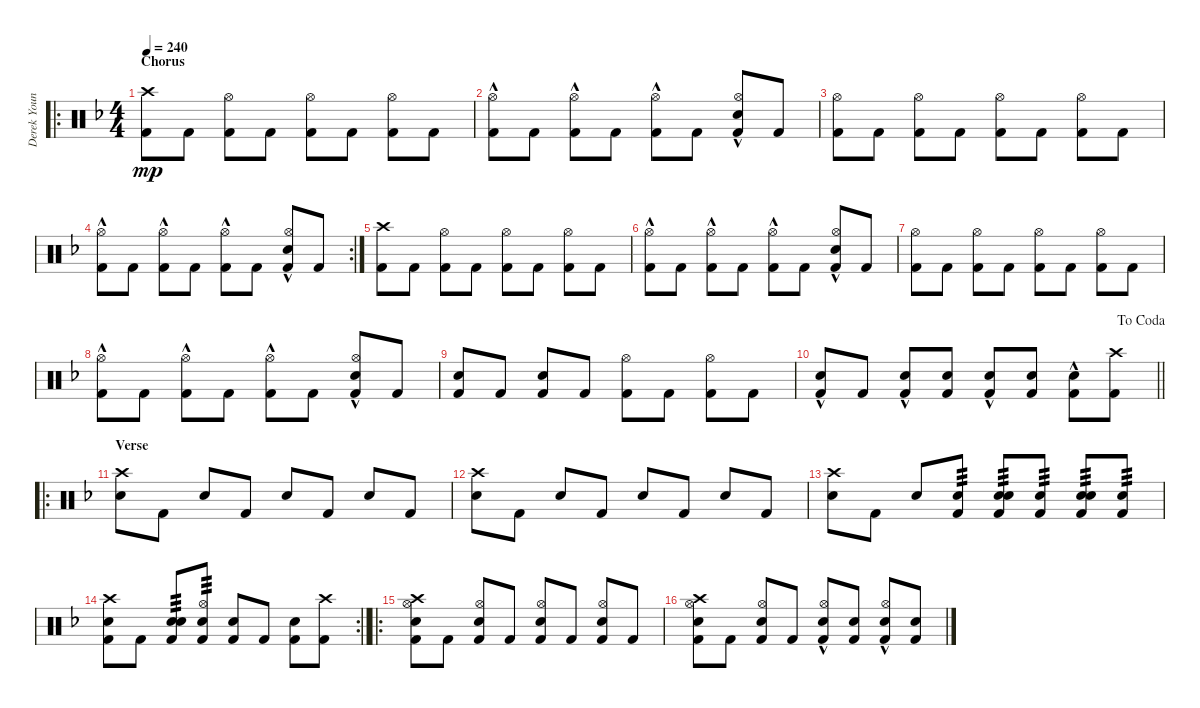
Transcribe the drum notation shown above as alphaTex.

\track ("Derek Youngsma" "Derek Youn") {instrument percussion}
\staff {score}
\articulation defaults
\ro
\ts (4 4)
\section ("" "Chorus")
\tempo 240
\clef neutral
\ks f
("Crash high (hit)" "Kick (hit) 2").8{dy mp} "Kick (hit) 2".8 ("Hi-Hat (open)" "Kick (hit) 2").8 "Kick (hit) 2".8 ("Hi-Hat (open)" "Kick (hit) 2").8 "Kick (hit) 2".8 ("Hi-Hat (open)" "Kick (hit) 2").8 "Kick (hit) 2".8 |
("Hi-Hat (open)" "Kick (hit) 2"{hac}).8 "Kick (hit) 2".8 ("Hi-Hat (open)" "Kick (hit) 2"{hac}).8 "Kick (hit) 2".8 ("Hi-Hat (open)" "Kick (hit) 2"{hac}).8 "Kick (hit) 2".8 ("Hi-Hat (open)" "Electric Snare (hit)" "Kick (hit) 2"{hac}).8 "Kick (hit) 2".8 |
("Hi-Hat (open)" "Kick (hit) 2").8 "Kick (hit) 2".8 ("Hi-Hat (open)" "Kick (hit) 2").8 "Kick (hit) 2".8 ("Hi-Hat (open)" "Kick (hit) 2").8 "Kick (hit) 2".8 ("Hi-Hat (open)" "Kick (hit) 2").8 "Kick (hit) 2".8 |
\rc 2
("Hi-Hat (open)" "Kick (hit) 2"{hac}).8 "Kick (hit) 2".8 ("Hi-Hat (open)" "Kick (hit) 2"{hac}).8 "Kick (hit) 2".8 ("Hi-Hat (open)" "Kick (hit) 2"{hac}).8 "Kick (hit) 2".8 ("Hi-Hat (open)" "Electric Snare (hit)" "Kick (hit) 2"{hac}).8 "Kick (hit) 2".8 |
("Crash high (hit)" "Kick (hit) 2").8 "Kick (hit) 2".8 ("Hi-Hat (open)" "Kick (hit) 2").8 "Kick (hit) 2".8 ("Hi-Hat (open)" "Kick (hit) 2").8 "Kick (hit) 2".8 ("Hi-Hat (open)" "Kick (hit) 2").8 "Kick (hit) 2".8 |
("Hi-Hat (open)" "Kick (hit) 2"{hac}).8 "Kick (hit) 2".8 ("Hi-Hat (open)" "Kick (hit) 2"{hac}).8 "Kick (hit) 2".8 ("Hi-Hat (open)" "Kick (hit) 2"{hac}).8 "Kick (hit) 2".8 ("Hi-Hat (open)" "Electric Snare (hit)" "Kick (hit) 2"{hac}).8 "Kick (hit) 2".8 |
("Hi-Hat (open)" "Kick (hit) 2").8 "Kick (hit) 2".8 ("Hi-Hat (open)" "Kick (hit) 2").8 "Kick (hit) 2".8 ("Hi-Hat (open)" "Kick (hit) 2").8 "Kick (hit) 2".8 ("Hi-Hat (open)" "Kick (hit) 2").8 "Kick (hit) 2".8 |
("Hi-Hat (open)" "Kick (hit) 2"{hac}).8 "Kick (hit) 2".8 ("Hi-Hat (open)" "Kick (hit) 2"{hac}).8 "Kick (hit) 2".8 ("Hi-Hat (open)" "Kick (hit) 2"{hac}).8 "Kick (hit) 2".8 ("Hi-Hat (open)" "Electric Snare (hit)" "Kick (hit) 2"{hac}).8 "Kick (hit) 2".8 |
("Electric Snare (hit)" "Kick (hit) 2").8 "Kick (hit) 2".8 ("Electric Snare (hit)" "Kick (hit) 2").8 "Kick (hit) 2".8 ("Hi-Hat (open)" "Kick (hit) 2").8 "Kick (hit) 2".8 ("Hi-Hat (open)" "Kick (hit) 2").8 "Kick (hit) 2".8 |
\jump dacoda
\barLineRight lightlight
("Electric Snare (hit)"{hac} "Kick (hit) 2").8 "Kick (hit) 2".8 ("Electric Snare (hit)"{hac} "Kick (hit) 2").8 ("Electric Snare (hit)" "Kick (hit) 2").8 ("Electric Snare (hit)"{hac} "Kick (hit) 2").8 ("Electric Snare (hit)" "Kick (hit) 2").8 ("Electric Snare (hit)"{hac} "Kick (hit) 2").8 ("Crash high (hit)" "Kick (hit) 2").8 |
\ro
\section ("" "Verse")
("Crash high (hit)" "Electric Snare (hit)").8 "Kick (hit) 2".8 "Electric Snare (hit)".8 "Kick (hit) 2".8 "Electric Snare (hit)".8 "Kick (hit) 2".8 "Electric Snare (hit)".8 "Kick (hit) 2".8 |
("Crash high (hit)" "Electric Snare (hit)").8 "Kick (hit) 2".8 "Electric Snare (hit)".8 "Kick (hit) 2".8 "Electric Snare (hit)".8 "Kick (hit) 2".8 "Electric Snare (hit)".8 "Kick (hit) 2".8 |
("Crash high (hit)" "Electric Snare (hit)").8 "Kick (hit) 2".8 "Electric Snare (hit)".8 ("Snare (hit) 2" "Kick (hit) 2").8{tp 3} ("Electric Snare (hit)" "Snare (hit) 2" "Kick (hit) 2").8{tp 3} ("Snare (hit) 2" "Kick (hit) 2").8{tp 3} ("Electric Snare (hit)" "Snare (hit) 2" "Kick (hit) 2").8{tp 3} ("Snare (hit) 2" "Kick (hit) 2").8{tp 3} |
\rc 2
\barLineRight lightlight
("Crash high (hit)" "Electric Snare (hit)" "Kick (hit) 2").8 "Kick (hit) 2".8 ("Electric Snare (hit)" "Electric Snare (hit)" "Kick (hit) 2").8{tp 3} ("Snare (hit) 2" "Hi-Hat (open)" "Kick (hit) 2").8{tp 3} ("Electric Snare (hit)" "Kick (hit) 2").8 "Kick (hit) 2".8 ("Electric Snare (hit)" "Kick (hit) 2").8 ("Crash high (hit)" "Kick (hit) 2").8 |
\ro
("Crash high (hit)" "Electric Snare (hit)" "Hi-Hat (open)" "Kick (hit) 2").8 "Kick (hit) 2".8 ("Electric Snare (hit)" "Hi-Hat (open)" "Kick (hit) 2").8 "Kick (hit) 2".8 ("Electric Snare (hit)" "Hi-Hat (open)" "Kick (hit) 2").8 "Kick (hit) 2".8 ("Electric Snare (hit)" "Hi-Hat (open)" "Kick (hit) 2").8 "Kick (hit) 2".8 |
("Crash high (hit)" "Electric Snare (hit)" "Hi-Hat (open)" "Kick (hit) 2").8 "Kick (hit) 2".8 ("Electric Snare (hit)" "Hi-Hat (open)" "Kick (hit) 2").8 "Kick (hit) 2".8 ("Electric Snare (hit)"{hac} "Hi-Hat (open)" "Kick (hit) 2").8 ("Electric Snare (hit)" "Kick (hit) 2").8 ("Electric Snare (hit)"{hac} "Hi-Hat (open)" "Kick (hit) 2").8 ("Electric Snare (hit)" "Kick (hit) 2").8
